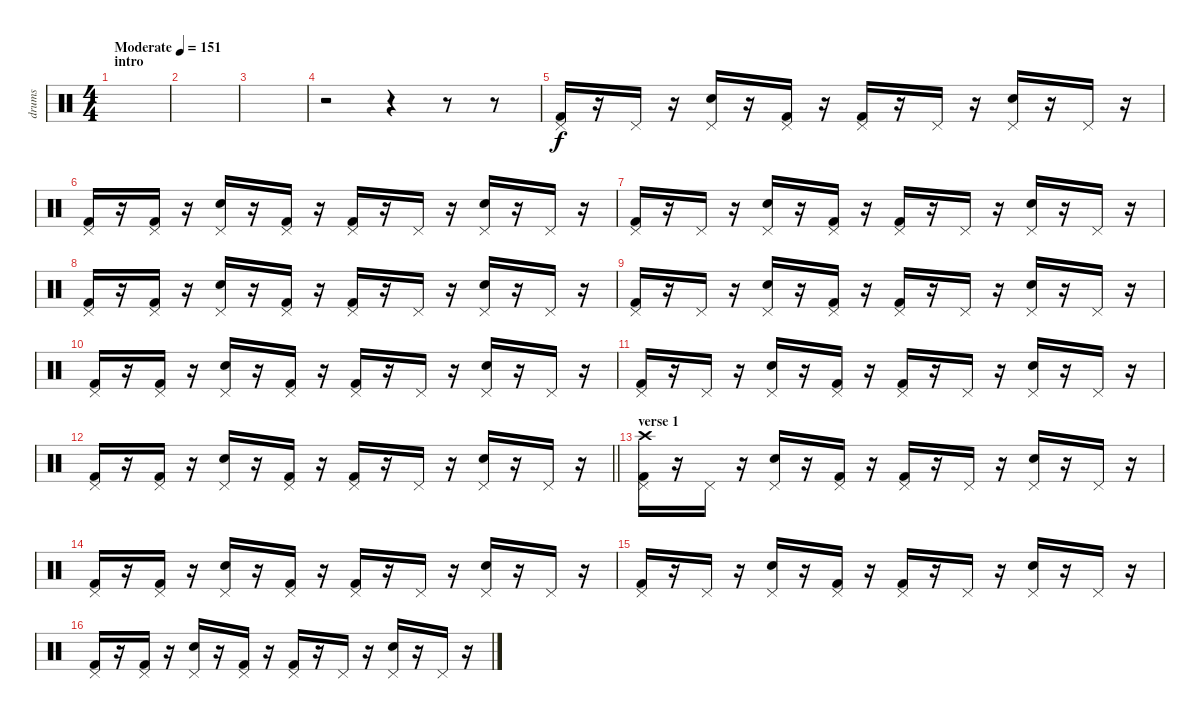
\track ("drums" "drums") {instrument percussion}
\staff {score}
\articulation defaults
\ts (4 4)
\section ("" "intro")
\tempo (151 "Moderate")
\clef neutral
\ks c
|
|
|
r.2 r.4 r.8 r.8 |
("Kick (hit) 2" "Pedal Hi-Hat (hit)").16 r.16 "Pedal Hi-Hat (hit)".16 r.16 ("Electric Snare (hit)" "Pedal Hi-Hat (hit)").16 r.16 ("Kick (hit) 2" "Pedal Hi-Hat (hit)").16 r.16 ("Kick (hit) 2" "Pedal Hi-Hat (hit)").16 r.16 "Pedal Hi-Hat (hit)".16 r.16 ("Electric Snare (hit)" "Pedal Hi-Hat (hit)").16 r.16 "Pedal Hi-Hat (hit)".16 r.16 |
("Kick (hit) 2" "Pedal Hi-Hat (hit)").16 r.16 ("Kick (hit) 2" "Pedal Hi-Hat (hit)").16 r.16 ("Electric Snare (hit)" "Pedal Hi-Hat (hit)").16 r.16 ("Kick (hit) 2" "Pedal Hi-Hat (hit)").16 r.16 ("Kick (hit) 2" "Pedal Hi-Hat (hit)").16 r.16 "Pedal Hi-Hat (hit)".16 r.16 ("Electric Snare (hit)" "Pedal Hi-Hat (hit)").16 r.16 "Pedal Hi-Hat (hit)".16 r.16 |
("Kick (hit) 2" "Pedal Hi-Hat (hit)").16 r.16 "Pedal Hi-Hat (hit)".16 r.16 ("Electric Snare (hit)" "Pedal Hi-Hat (hit)").16 r.16 ("Kick (hit) 2" "Pedal Hi-Hat (hit)").16 r.16 ("Kick (hit) 2" "Pedal Hi-Hat (hit)").16 r.16 "Pedal Hi-Hat (hit)".16 r.16 ("Electric Snare (hit)" "Pedal Hi-Hat (hit)").16 r.16 "Pedal Hi-Hat (hit)".16 r.16 |
("Kick (hit) 2" "Pedal Hi-Hat (hit)").16 r.16 ("Kick (hit) 2" "Pedal Hi-Hat (hit)").16 r.16 ("Electric Snare (hit)" "Pedal Hi-Hat (hit)").16 r.16 ("Kick (hit) 2" "Pedal Hi-Hat (hit)").16 r.16 ("Kick (hit) 2" "Pedal Hi-Hat (hit)").16 r.16 "Pedal Hi-Hat (hit)".16 r.16 ("Electric Snare (hit)" "Pedal Hi-Hat (hit)").16 r.16 "Pedal Hi-Hat (hit)".16 r.16 |
("Kick (hit) 2" "Pedal Hi-Hat (hit)").16 r.16 "Pedal Hi-Hat (hit)".16 r.16 ("Electric Snare (hit)" "Pedal Hi-Hat (hit)").16 r.16 ("Kick (hit) 2" "Pedal Hi-Hat (hit)").16 r.16 ("Kick (hit) 2" "Pedal Hi-Hat (hit)").16 r.16 "Pedal Hi-Hat (hit)".16 r.16 ("Electric Snare (hit)" "Pedal Hi-Hat (hit)").16 r.16 "Pedal Hi-Hat (hit)".16 r.16 |
("Kick (hit) 2" "Pedal Hi-Hat (hit)").16 r.16 ("Kick (hit) 2" "Pedal Hi-Hat (hit)").16 r.16 ("Electric Snare (hit)" "Pedal Hi-Hat (hit)").16 r.16 ("Kick (hit) 2" "Pedal Hi-Hat (hit)").16 r.16 ("Kick (hit) 2" "Pedal Hi-Hat (hit)").16 r.16 "Pedal Hi-Hat (hit)".16 r.16 ("Electric Snare (hit)" "Pedal Hi-Hat (hit)").16 r.16 "Pedal Hi-Hat (hit)".16 r.16 |
("Kick (hit) 2" "Pedal Hi-Hat (hit)").16 r.16 "Pedal Hi-Hat (hit)".16 r.16 ("Electric Snare (hit)" "Pedal Hi-Hat (hit)").16 r.16 ("Kick (hit) 2" "Pedal Hi-Hat (hit)").16 r.16 ("Kick (hit) 2" "Pedal Hi-Hat (hit)").16 r.16 "Pedal Hi-Hat (hit)".16 r.16 ("Electric Snare (hit)" "Pedal Hi-Hat (hit)").16 r.16 "Pedal Hi-Hat (hit)".16 r.16 |
\barLineRight lightlight
("Kick (hit) 2" "Pedal Hi-Hat (hit)").16 r.16 ("Kick (hit) 2" "Pedal Hi-Hat (hit)").16 r.16 ("Electric Snare (hit)" "Pedal Hi-Hat (hit)").16 r.16 ("Kick (hit) 2" "Pedal Hi-Hat (hit)").16 r.16 ("Kick (hit) 2" "Pedal Hi-Hat (hit)").16 r.16 "Pedal Hi-Hat (hit)".16 r.16 ("Electric Snare (hit)" "Pedal Hi-Hat (hit)").16 r.16 "Pedal Hi-Hat (hit)".16 r.16 |
\section ("" "verse 1 ")
("Kick (hit) 2" "Pedal Hi-Hat (hit)" "Crash high (hit)").16 r.16 "Pedal Hi-Hat (hit)".16 r.16 ("Electric Snare (hit)" "Pedal Hi-Hat (hit)").16 r.16 ("Kick (hit) 2" "Pedal Hi-Hat (hit)").16 r.16 ("Kick (hit) 2" "Pedal Hi-Hat (hit)").16 r.16 "Pedal Hi-Hat (hit)".16 r.16 ("Electric Snare (hit)" "Pedal Hi-Hat (hit)").16 r.16 "Pedal Hi-Hat (hit)".16 r.16 |
("Kick (hit) 2" "Pedal Hi-Hat (hit)").16 r.16 ("Kick (hit) 2" "Pedal Hi-Hat (hit)").16 r.16 ("Electric Snare (hit)" "Pedal Hi-Hat (hit)").16 r.16 ("Kick (hit) 2" "Pedal Hi-Hat (hit)").16 r.16 ("Kick (hit) 2" "Pedal Hi-Hat (hit)").16 r.16 "Pedal Hi-Hat (hit)".16 r.16 ("Electric Snare (hit)" "Pedal Hi-Hat (hit)").16 r.16 "Pedal Hi-Hat (hit)".16 r.16 |
("Kick (hit) 2" "Pedal Hi-Hat (hit)").16 r.16 "Pedal Hi-Hat (hit)".16 r.16 ("Electric Snare (hit)" "Pedal Hi-Hat (hit)").16 r.16 ("Kick (hit) 2" "Pedal Hi-Hat (hit)").16 r.16 ("Kick (hit) 2" "Pedal Hi-Hat (hit)").16 r.16 "Pedal Hi-Hat (hit)".16 r.16 ("Electric Snare (hit)" "Pedal Hi-Hat (hit)").16 r.16 "Pedal Hi-Hat (hit)".16 r.16 |
("Kick (hit) 2" "Pedal Hi-Hat (hit)").16 r.16 ("Kick (hit) 2" "Pedal Hi-Hat (hit)").16 r.16 ("Electric Snare (hit)" "Pedal Hi-Hat (hit)").16 r.16 ("Kick (hit) 2" "Pedal Hi-Hat (hit)").16 r.16 ("Kick (hit) 2" "Pedal Hi-Hat (hit)").16 r.16 "Pedal Hi-Hat (hit)".16 r.16 ("Electric Snare (hit)" "Pedal Hi-Hat (hit)").16 r.16 "Pedal Hi-Hat (hit)".16 r.16
